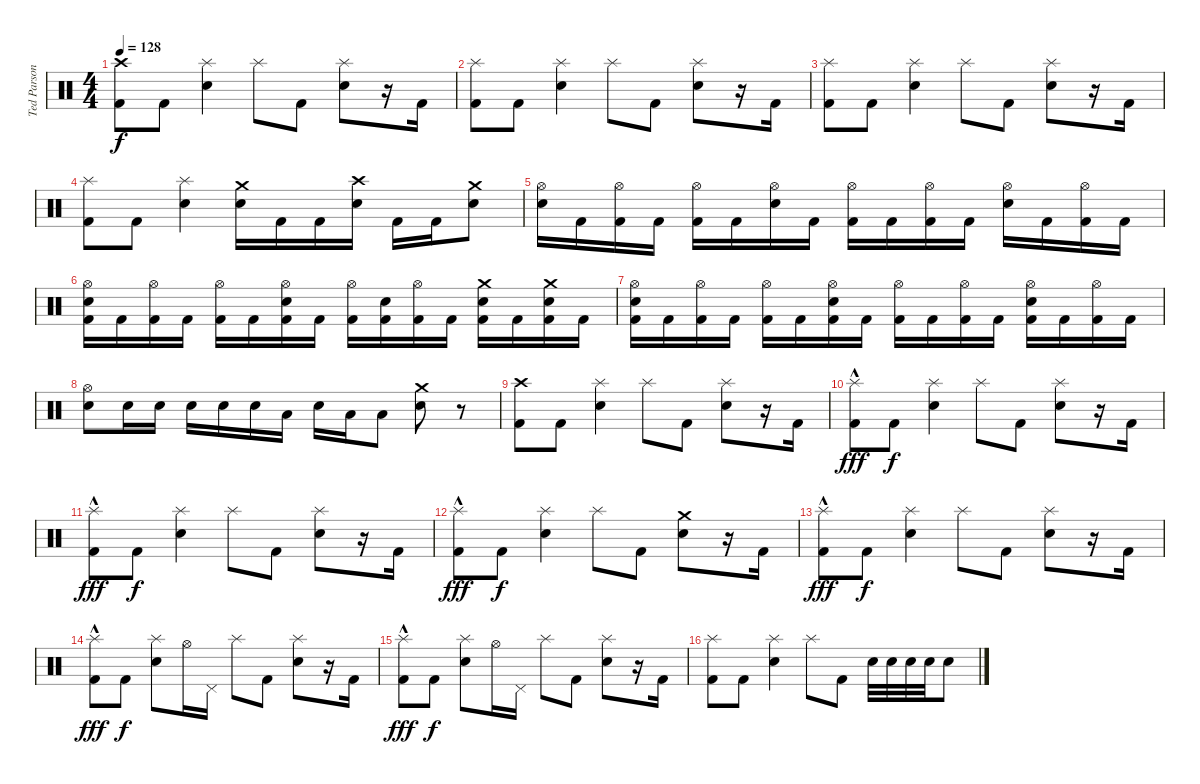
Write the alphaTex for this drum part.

\track ("Ted Parsons" "Ted Parson") {instrument percussion}
\staff {score}
\articulation defaults
\ts (4 4)
\tempo 128
\clef neutral
\ks c
("Crash high (hit)" "Kick (hit) 2").8{dy f} "Kick (hit) 2".8 ("Splash (hit)" "Electric Snare (hit)").4 "Splash (hit)".8 "Kick (hit) 2".8 ("Splash (hit)" "Electric Snare (hit)").8 r.16 "Kick (hit) 2".16 |
("Splash (hit)" "Kick (hit) 2").8 "Kick (hit) 2".8 ("Splash (hit)" "Electric Snare (hit)").4 "Splash (hit)".8 "Kick (hit) 2".8 ("Splash (hit)" "Electric Snare (hit)").8 r.16 "Kick (hit) 2".16 |
("Splash (hit)" "Kick (hit) 2").8 "Kick (hit) 2".8 ("Splash (hit)" "Electric Snare (hit)").4 "Splash (hit)".8 "Kick (hit) 2".8 ("Splash (hit)" "Electric Snare (hit)").8 r.16 "Kick (hit) 2".16 |
("Splash (hit)" "Kick (hit) 2").8 "Kick (hit) 2".8 ("Splash (hit)" "Electric Snare (hit)").4 ("Crash medium (hit)" "Electric Snare (hit)").16 "Kick (hit) 2".16 "Kick (hit) 2".16 ("Crash high (hit)" "Electric Snare (hit)").16 "Kick (hit) 2".16 "Kick (hit) 2".16 ("Crash medium (hit)" "Electric Snare (hit)").8 |
("Hi-Hat (open)" "Electric Snare (hit)").16 "Kick (hit) 2".16 ("Hi-Hat (open)" "Kick (hit) 2").16 "Kick (hit) 2".16 ("Hi-Hat (open)" "Kick (hit) 2").16 "Kick (hit) 2".16 ("Hi-Hat (open)" "Electric Snare (hit)").16 "Kick (hit) 2".16 ("Hi-Hat (open)" "Kick (hit) 2").16 "Kick (hit) 2".16 ("Hi-Hat (open)" "Kick (hit) 2").16 "Kick (hit) 2".16 ("Hi-Hat (open)" "Electric Snare (hit)").16 "Kick (hit) 2".16 ("Hi-Hat (open)" "Kick (hit) 2").16 "Kick (hit) 2".16 |
("Hi-Hat (open)" "Electric Snare (hit)" "Kick (hit) 2").16 "Kick (hit) 2".16 ("Hi-Hat (open)" "Kick (hit) 2").16 "Kick (hit) 2".16 ("Hi-Hat (open)" "Kick (hit) 2").16 "Kick (hit) 2".16 ("Hi-Hat (open)" "Electric Snare (hit)" "Kick (hit) 2").16 "Kick (hit) 2".16 ("Hi-Hat (open)" "Kick (hit) 2").16 ("Electric Snare (hit)" "Kick (hit) 2").16 ("Hi-Hat (open)" "Kick (hit) 2").16 "Kick (hit) 2".16 ("Crash medium (hit)" "Electric Snare (hit)" "Kick (hit) 2").16 "Kick (hit) 2".16 ("Crash medium (hit)" "Electric Snare (hit)" "Kick (hit) 2").16 "Kick (hit) 2".16 |
("Hi-Hat (open)" "Electric Snare (hit)" "Kick (hit) 2").16 "Kick (hit) 2".16 ("Hi-Hat (open)" "Kick (hit) 2").16 "Kick (hit) 2".16 ("Hi-Hat (open)" "Kick (hit) 2").16 "Kick (hit) 2".16 ("Hi-Hat (open)" "Electric Snare (hit)" "Kick (hit) 2").16 "Kick (hit) 2".16 ("Hi-Hat (open)" "Kick (hit) 2").16 "Kick (hit) 2".16 ("Hi-Hat (open)" "Kick (hit) 2").16 "Kick (hit) 2".16 ("Hi-Hat (open)" "Electric Snare (hit)" "Kick (hit) 2").16 "Kick (hit) 2".16 ("Hi-Hat (open)" "Kick (hit) 2").16 "Kick (hit) 2".16 |
("Hi-Hat (open)" "Electric Snare (hit)").8 "Electric Snare (hit)".16 "Electric Snare (hit)".16 "Electric Snare (hit)".16 "Electric Snare (hit)".16 "Electric Snare (hit)".16 "Low Floor Tom (hit)".16 "Electric Snare (hit)".16 "Low Floor Tom (hit)".16 "Low Floor Tom (hit)".8 ("Crash medium (hit)" "Electric Snare (hit)").8 r.8 |
("Crash high (hit)" "Kick (hit) 2").8 "Kick (hit) 2".8 ("Splash (hit)" "Electric Snare (hit)").4 "Splash (hit)".8 "Kick (hit) 2".8 ("Splash (hit)" "Electric Snare (hit)").8 r.16 "Kick (hit) 2".16 |
("Splash (hit)"{hac} "Kick (hit) 2").8{dy fff} "Kick (hit) 2".8{dy f} ("Splash (hit)" "Electric Snare (hit)").4 "Splash (hit)".8 "Kick (hit) 2".8 ("Splash (hit)" "Electric Snare (hit)").8 r.16 "Kick (hit) 2".16 |
("Splash (hit)"{hac} "Kick (hit) 2").8{dy fff} "Kick (hit) 2".8{dy f} ("Splash (hit)" "Electric Snare (hit)").4 "Splash (hit)".8 "Kick (hit) 2".8 ("Splash (hit)" "Electric Snare (hit)").8 r.16 "Kick (hit) 2".16 |
("Splash (hit)"{hac} "Kick (hit) 2").8{dy fff} "Kick (hit) 2".8{dy f} ("Splash (hit)" "Electric Snare (hit)").4 "Splash (hit)".8 "Kick (hit) 2".8 ("Crash medium (hit)" "Electric Snare (hit)").8 r.16 "Kick (hit) 2".16 |
("Splash (hit)"{hac} "Kick (hit) 2").8{dy fff} "Kick (hit) 2".8{dy f} ("Splash (hit)" "Electric Snare (hit)").4 "Splash (hit)".8 "Kick (hit) 2".8 ("Splash (hit)" "Electric Snare (hit)").8 r.16 "Kick (hit) 2".16 |
("Splash (hit)"{hac} "Kick (hit) 2").8{dy fff} "Kick (hit) 2".8{dy f} ("Splash (hit)" "Electric Snare (hit)").8 "Hi-Hat (open)".16 "Pedal Hi-Hat (hit)".16 "Splash (hit)".8 "Kick (hit) 2".8 ("Splash (hit)" "Electric Snare (hit)").8 r.16 "Kick (hit) 2".16 |
("Splash (hit)"{hac} "Kick (hit) 2").8{dy fff} "Kick (hit) 2".8{dy f} ("Splash (hit)" "Electric Snare (hit)").8 "Hi-Hat (open)".16 "Pedal Hi-Hat (hit)".16 "Splash (hit)".8 "Kick (hit) 2".8 ("Splash (hit)" "Electric Snare (hit)").8 r.16 "Kick (hit) 2".16 |
("Splash (hit)" "Kick (hit) 2").8 "Kick (hit) 2".8 ("Splash (hit)" "Electric Snare (hit)").4 "Splash (hit)".8 "Kick (hit) 2".8 "Electric Snare (hit)".32 "Electric Snare (hit)".32 "Electric Snare (hit)".32 "Electric Snare (hit)".32 "Electric Snare (hit)".8
